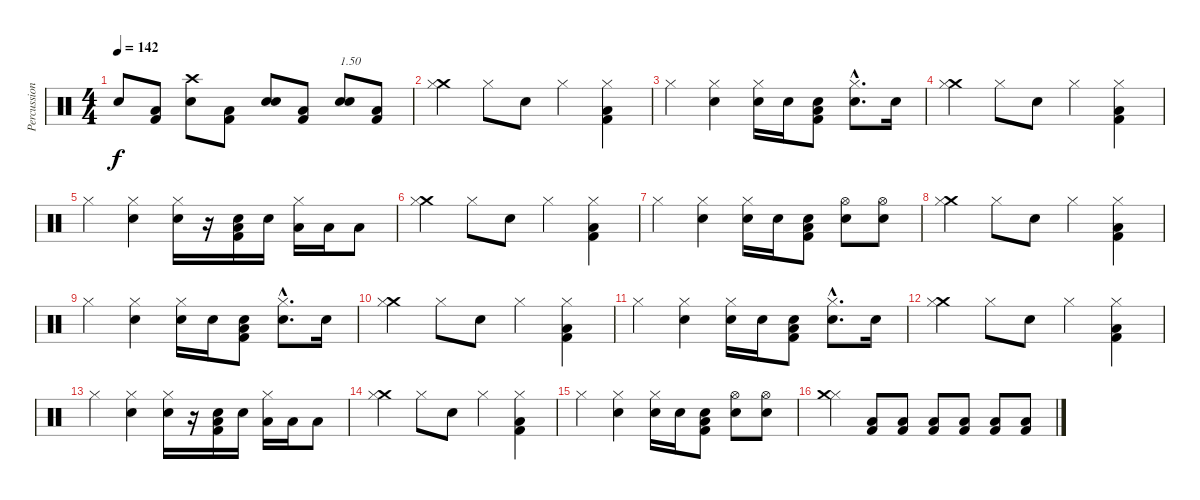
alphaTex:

\track ("Percussions" "Percussion") {instrument percussion}
\staff {score}
\articulation defaults
\ts (4 4)
\tempo 142
\clef neutral
\ks c "Electric Snare (hit)".8{dy f}
("Kick (hit) 2" "Low Floor Tom (hit)").8 ("Electric Snare (hit)" "Crash high (hit)").8 ("Kick (hit) 2" "Low Floor Tom (hit)").8 ("Electric Snare (hit)" "Snare (hit) 2").8 ("Kick (hit) 2" "Low Floor Tom (hit)").8 ("Electric Snare (hit)" "Snare (hit) 2").8{txt "1.50"} ("Kick (hit) 2" "Low Floor Tom (hit)").8 |
("Crash medium (hit)" "Hi-Hat (closed)").4 "Hi-Hat (closed)".8 "Electric Snare (hit)".8 "Hi-Hat (closed)".4 ("Kick (hit) 2" "Low Floor Tom (hit)" "Hi-Hat (closed)").4 |
"Hi-Hat (closed)".4 ("Electric Snare (hit)" "Hi-Hat (closed)").4 ("Electric Snare (hit)" "Hi-Hat (closed)").16 "Electric Snare (hit)".16 ("Kick (hit) 2" "Low Floor Tom (hit)" "Electric Snare (hit)").8 ("Electric Snare (hit)"{hac} "Hi-Hat (closed)"{hac}).8{d} "Electric Snare (hit)".16 |
("Crash medium (hit)" "Hi-Hat (closed)").4 "Hi-Hat (closed)".8 "Electric Snare (hit)".8 "Hi-Hat (closed)".4 ("Kick (hit) 2" "Low Floor Tom (hit)" "Hi-Hat (closed)").4 |
"Hi-Hat (closed)".4 ("Electric Snare (hit)" "Hi-Hat (closed)").4 ("Electric Snare (hit)" "Hi-Hat (closed)").16 r.16 ("Kick (hit) 2" "Low Floor Tom (hit)" "Electric Snare (hit)").16 "Electric Snare (hit)".16 ("Low Tom (hit)" "Hi-Hat (closed)").16 "Low Tom (hit)".16 "Low Tom (hit)".8 |
("Crash medium (hit)" "Hi-Hat (closed)").4 "Hi-Hat (closed)".8 "Electric Snare (hit)".8 "Hi-Hat (closed)".4 ("Kick (hit) 2" "Low Floor Tom (hit)" "Hi-Hat (closed)").4 |
"Hi-Hat (closed)".4 ("Electric Snare (hit)" "Hi-Hat (closed)").4 ("Electric Snare (hit)" "Hi-Hat (closed)").16 "Electric Snare (hit)".16 ("Kick (hit) 2" "Low Floor Tom (hit)" "Electric Snare (hit)").8 ("Electric Snare (hit)" "Hi-Hat (open)").8 ("Electric Snare (hit)" "Hi-Hat (open)").8 |
("Crash medium (hit)" "Hi-Hat (closed)").4 "Hi-Hat (closed)".8 "Electric Snare (hit)".8 "Hi-Hat (closed)".4 ("Kick (hit) 2" "Low Floor Tom (hit)" "Hi-Hat (closed)").4 |
"Hi-Hat (closed)".4 ("Electric Snare (hit)" "Hi-Hat (closed)").4 ("Electric Snare (hit)" "Hi-Hat (closed)").16 "Electric Snare (hit)".16 ("Kick (hit) 2" "Low Floor Tom (hit)" "Electric Snare (hit)").8 ("Electric Snare (hit)"{hac} "Hi-Hat (closed)"{hac}).8{d} "Electric Snare (hit)".16 |
("Crash medium (hit)" "Hi-Hat (closed)").4 "Hi-Hat (closed)".8 "Electric Snare (hit)".8 "Hi-Hat (closed)".4 ("Kick (hit) 2" "Low Floor Tom (hit)" "Hi-Hat (closed)").4 |
"Hi-Hat (closed)".4 ("Electric Snare (hit)" "Hi-Hat (closed)").4 ("Electric Snare (hit)" "Hi-Hat (closed)").16 "Electric Snare (hit)".16 ("Kick (hit) 2" "Low Floor Tom (hit)" "Electric Snare (hit)").8 ("Electric Snare (hit)"{hac} "Hi-Hat (closed)"{hac}).8{d} "Electric Snare (hit)".16 |
("Crash medium (hit)" "Hi-Hat (closed)").4 "Hi-Hat (closed)".8 "Electric Snare (hit)".8 "Hi-Hat (closed)".4 ("Kick (hit) 2" "Low Floor Tom (hit)" "Hi-Hat (closed)").4 |
"Hi-Hat (closed)".4 ("Electric Snare (hit)" "Hi-Hat (closed)").4 ("Electric Snare (hit)" "Hi-Hat (closed)").16 r.16 ("Kick (hit) 2" "Low Floor Tom (hit)" "Electric Snare (hit)").16 "Electric Snare (hit)".16 ("Low Tom (hit)" "Hi-Hat (closed)").16 "Low Tom (hit)".16 "Low Tom (hit)".8 |
("Crash medium (hit)" "Hi-Hat (closed)").4 "Hi-Hat (closed)".8 "Electric Snare (hit)".8 "Hi-Hat (closed)".4 ("Kick (hit) 2" "Low Floor Tom (hit)" "Hi-Hat (closed)").4 |
"Hi-Hat (closed)".4 ("Electric Snare (hit)" "Hi-Hat (closed)").4 ("Electric Snare (hit)" "Hi-Hat (closed)").16 "Electric Snare (hit)".16 ("Kick (hit) 2" "Low Floor Tom (hit)" "Electric Snare (hit)").8 ("Electric Snare (hit)" "Hi-Hat (open)").8 ("Electric Snare (hit)" "Hi-Hat (open)").8 |
("Hi-Hat (closed)" "Crash medium (hit)").4 ("Kick (hit) 2" "Low Floor Tom (hit)").8{volume 8} ("Kick (hit) 2" "Low Floor Tom (hit)").8 ("Kick (hit) 2" "Low Floor Tom (hit)").8{volume 16} ("Kick (hit) 2" "Low Floor Tom (hit)").8 ("Kick (hit) 2" "Low Floor Tom (hit)").8 ("Kick (hit) 2" "Low Floor Tom (hit)").8
